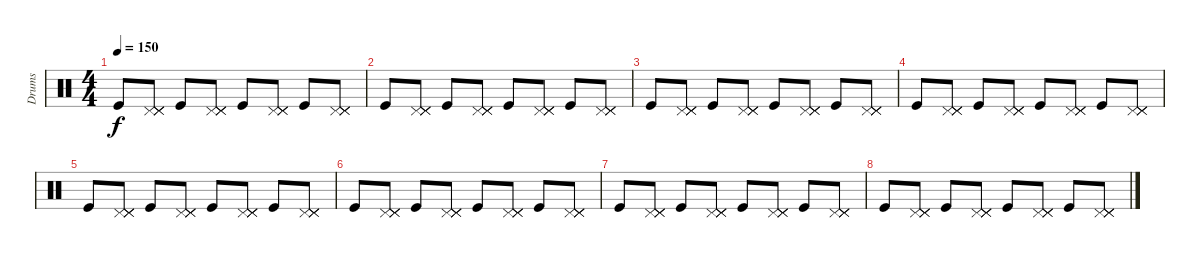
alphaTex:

\track ("Drums" "Drums") {instrument percussion}
\staff {score}
\articulation defaults
\ts (4 4)
\tempo 150
\clef neutral
\ks c "Kick (hit)".8{dy f}
("Pedal Hi-Hat (hit)" "Pedal Hi-Hat (hit)" "Pedal Hi-Hat (hit)" "Pedal Hi-Hat (hit)").8 "Kick (hit)".8 ("Pedal Hi-Hat (hit)" "Pedal Hi-Hat (hit)" "Pedal Hi-Hat (hit)" "Pedal Hi-Hat (hit)").8 "Kick (hit)".8 ("Pedal Hi-Hat (hit)" "Pedal Hi-Hat (hit)" "Pedal Hi-Hat (hit)" "Pedal Hi-Hat (hit)").8 "Kick (hit)".8 ("Pedal Hi-Hat (hit)" "Pedal Hi-Hat (hit)" "Pedal Hi-Hat (hit)" "Pedal Hi-Hat (hit)").8 |
"Kick (hit)".8 ("Pedal Hi-Hat (hit)" "Pedal Hi-Hat (hit)" "Pedal Hi-Hat (hit)" "Pedal Hi-Hat (hit)").8 "Kick (hit)".8 ("Pedal Hi-Hat (hit)" "Pedal Hi-Hat (hit)" "Pedal Hi-Hat (hit)" "Pedal Hi-Hat (hit)").8 "Kick (hit)".8 ("Pedal Hi-Hat (hit)" "Pedal Hi-Hat (hit)" "Pedal Hi-Hat (hit)" "Pedal Hi-Hat (hit)").8 "Kick (hit)".8 ("Pedal Hi-Hat (hit)" "Pedal Hi-Hat (hit)" "Pedal Hi-Hat (hit)" "Pedal Hi-Hat (hit)").8 |
"Kick (hit)".8 ("Pedal Hi-Hat (hit)" "Pedal Hi-Hat (hit)" "Pedal Hi-Hat (hit)" "Pedal Hi-Hat (hit)").8 "Kick (hit)".8 ("Pedal Hi-Hat (hit)" "Pedal Hi-Hat (hit)" "Pedal Hi-Hat (hit)" "Pedal Hi-Hat (hit)").8 "Kick (hit)".8 ("Pedal Hi-Hat (hit)" "Pedal Hi-Hat (hit)" "Pedal Hi-Hat (hit)" "Pedal Hi-Hat (hit)").8 "Kick (hit)".8 ("Pedal Hi-Hat (hit)" "Pedal Hi-Hat (hit)" "Pedal Hi-Hat (hit)" "Pedal Hi-Hat (hit)").8 |
"Kick (hit)".8 ("Pedal Hi-Hat (hit)" "Pedal Hi-Hat (hit)" "Pedal Hi-Hat (hit)" "Pedal Hi-Hat (hit)").8 "Kick (hit)".8 ("Pedal Hi-Hat (hit)" "Pedal Hi-Hat (hit)" "Pedal Hi-Hat (hit)" "Pedal Hi-Hat (hit)").8 "Kick (hit)".8 ("Pedal Hi-Hat (hit)" "Pedal Hi-Hat (hit)" "Pedal Hi-Hat (hit)" "Pedal Hi-Hat (hit)").8 "Kick (hit)".8 ("Pedal Hi-Hat (hit)" "Pedal Hi-Hat (hit)" "Pedal Hi-Hat (hit)" "Pedal Hi-Hat (hit)").8 |
"Kick (hit)".8 ("Pedal Hi-Hat (hit)" "Pedal Hi-Hat (hit)" "Pedal Hi-Hat (hit)" "Pedal Hi-Hat (hit)").8 "Kick (hit)".8 ("Pedal Hi-Hat (hit)" "Pedal Hi-Hat (hit)" "Pedal Hi-Hat (hit)" "Pedal Hi-Hat (hit)").8 "Kick (hit)".8 ("Pedal Hi-Hat (hit)" "Pedal Hi-Hat (hit)" "Pedal Hi-Hat (hit)" "Pedal Hi-Hat (hit)").8 "Kick (hit)".8 ("Pedal Hi-Hat (hit)" "Pedal Hi-Hat (hit)" "Pedal Hi-Hat (hit)" "Pedal Hi-Hat (hit)").8 |
"Kick (hit)".8 ("Pedal Hi-Hat (hit)" "Pedal Hi-Hat (hit)" "Pedal Hi-Hat (hit)" "Pedal Hi-Hat (hit)").8 "Kick (hit)".8 ("Pedal Hi-Hat (hit)" "Pedal Hi-Hat (hit)" "Pedal Hi-Hat (hit)" "Pedal Hi-Hat (hit)").8 "Kick (hit)".8 ("Pedal Hi-Hat (hit)" "Pedal Hi-Hat (hit)" "Pedal Hi-Hat (hit)" "Pedal Hi-Hat (hit)").8 "Kick (hit)".8 ("Pedal Hi-Hat (hit)" "Pedal Hi-Hat (hit)" "Pedal Hi-Hat (hit)" "Pedal Hi-Hat (hit)").8 |
"Kick (hit)".8 ("Pedal Hi-Hat (hit)" "Pedal Hi-Hat (hit)" "Pedal Hi-Hat (hit)" "Pedal Hi-Hat (hit)").8 "Kick (hit)".8 ("Pedal Hi-Hat (hit)" "Pedal Hi-Hat (hit)" "Pedal Hi-Hat (hit)" "Pedal Hi-Hat (hit)").8 "Kick (hit)".8 ("Pedal Hi-Hat (hit)" "Pedal Hi-Hat (hit)" "Pedal Hi-Hat (hit)" "Pedal Hi-Hat (hit)").8 "Kick (hit)".8 ("Pedal Hi-Hat (hit)" "Pedal Hi-Hat (hit)" "Pedal Hi-Hat (hit)" "Pedal Hi-Hat (hit)").8 |
"Kick (hit)".8 ("Pedal Hi-Hat (hit)" "Pedal Hi-Hat (hit)" "Pedal Hi-Hat (hit)" "Pedal Hi-Hat (hit)").8 "Kick (hit)".8 ("Pedal Hi-Hat (hit)" "Pedal Hi-Hat (hit)" "Pedal Hi-Hat (hit)" "Pedal Hi-Hat (hit)").8 "Kick (hit)".8 ("Pedal Hi-Hat (hit)" "Pedal Hi-Hat (hit)" "Pedal Hi-Hat (hit)" "Pedal Hi-Hat (hit)").8 "Kick (hit)".8 ("Pedal Hi-Hat (hit)" "Pedal Hi-Hat (hit)" "Pedal Hi-Hat (hit)" "Pedal Hi-Hat (hit)").8
